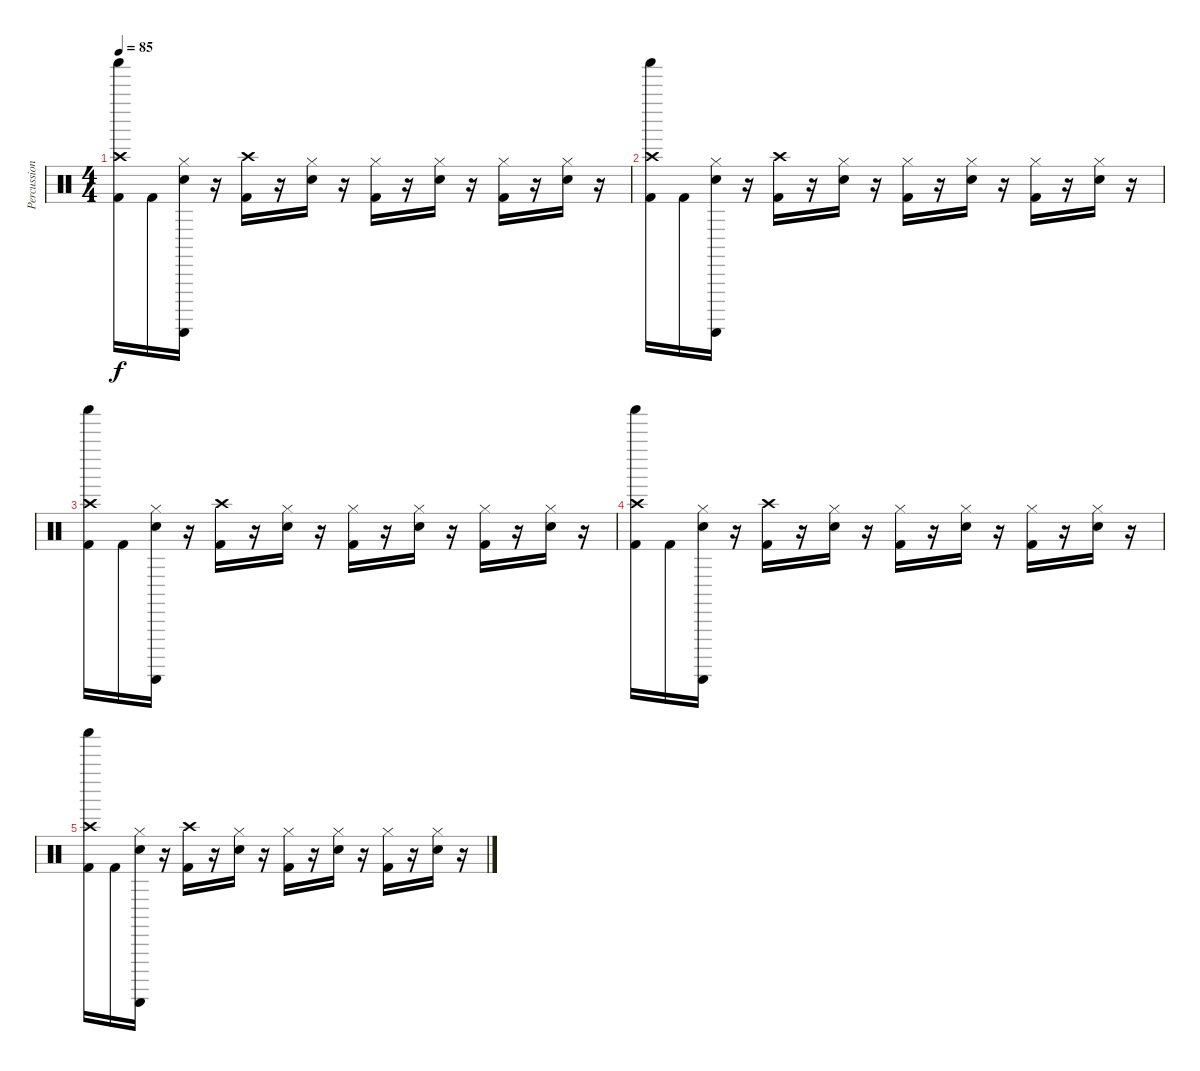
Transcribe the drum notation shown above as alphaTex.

\track ("Percussioni" "Percussion") {instrument percussion}
\staff {score}
\articulation defaults
\ts (4 4)
\tempo 85
\clef neutral
\ks c
("Shaker (hit)" "Crash high (hit)" "Kick (hit) 2").16{dy f} "Kick (hit) 2".16 ("Hi-Hat (closed)" "Guiro (scrap-return)" "Electric Snare (hit)").16 r.16 ("Crash high (hit)" "Kick (hit) 2").16 r.16 ("Hi-Hat (closed)" "Electric Snare (hit)").16 r.16 ("Hi-Hat (closed)" "Kick (hit) 2").16 r.16 ("Hi-Hat (closed)" "Electric Snare (hit)").16 r.16 ("Hi-Hat (closed)" "Kick (hit) 2").16 r.16 ("Hi-Hat (closed)" "Electric Snare (hit)").16 r.16 |
("Shaker (hit)" "Crash high (hit)" "Kick (hit) 2").16 "Kick (hit) 2".16 ("Hi-Hat (closed)" "Guiro (scrap-return)" "Electric Snare (hit)").16 r.16 ("Crash high (hit)" "Kick (hit) 2").16 r.16 ("Hi-Hat (closed)" "Electric Snare (hit)").16 r.16 ("Hi-Hat (closed)" "Kick (hit) 2").16 r.16 ("Hi-Hat (closed)" "Electric Snare (hit)").16 r.16 ("Hi-Hat (closed)" "Kick (hit) 2").16 r.16 ("Hi-Hat (closed)" "Electric Snare (hit)").16 r.16 |
("Shaker (hit)" "Crash high (hit)" "Kick (hit) 2").16 "Kick (hit) 2".16 ("Hi-Hat (closed)" "Guiro (scrap-return)" "Electric Snare (hit)").16 r.16 ("Crash high (hit)" "Kick (hit) 2").16 r.16 ("Hi-Hat (closed)" "Electric Snare (hit)").16 r.16 ("Hi-Hat (closed)" "Kick (hit) 2").16 r.16 ("Hi-Hat (closed)" "Electric Snare (hit)").16 r.16 ("Hi-Hat (closed)" "Kick (hit) 2").16 r.16 ("Hi-Hat (closed)" "Electric Snare (hit)").16 r.16 |
("Shaker (hit)" "Crash high (hit)" "Kick (hit) 2").16 "Kick (hit) 2".16 ("Hi-Hat (closed)" "Guiro (scrap-return)" "Electric Snare (hit)").16 r.16 ("Crash high (hit)" "Kick (hit) 2").16 r.16 ("Hi-Hat (closed)" "Electric Snare (hit)").16 r.16 ("Hi-Hat (closed)" "Kick (hit) 2").16 r.16 ("Hi-Hat (closed)" "Electric Snare (hit)").16 r.16 ("Hi-Hat (closed)" "Kick (hit) 2").16 r.16 ("Hi-Hat (closed)" "Electric Snare (hit)").16 r.16 |
("Shaker (hit)" "Crash high (hit)" "Kick (hit) 2").16 "Kick (hit) 2".16 ("Hi-Hat (closed)" "Guiro (scrap-return)" "Electric Snare (hit)").16 r.16 ("Crash high (hit)" "Kick (hit) 2").16 r.16 ("Hi-Hat (closed)" "Electric Snare (hit)").16 r.16 ("Hi-Hat (closed)" "Kick (hit) 2").16 r.16 ("Hi-Hat (closed)" "Electric Snare (hit)").16 r.16 ("Hi-Hat (closed)" "Kick (hit) 2").16 r.16 ("Hi-Hat (closed)" "Electric Snare (hit)").16 r.16
